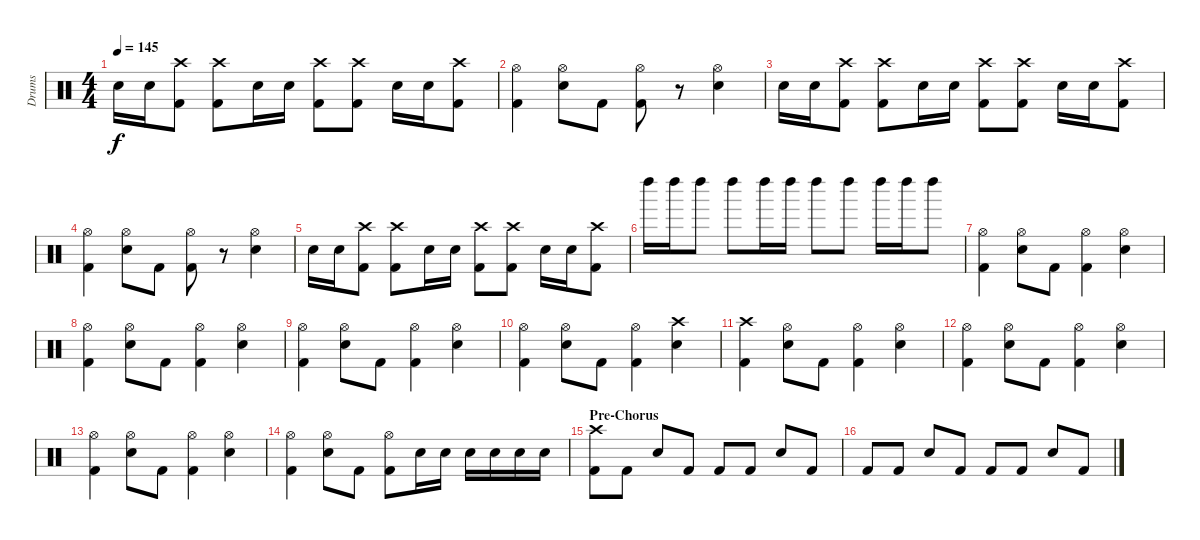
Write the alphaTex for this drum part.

\track ("Drums" "Drums") {instrument percussion}
\staff {score}
\articulation defaults
\ts (4 4)
\tempo 145
\clef neutral
\ks c "Snare (hit) 2".16{dy f} "Snare (hit) 2".16
("Crash high (hit)" "Kick (hit) 2").8 ("Crash high (hit)" "Kick (hit) 2").8 "Snare (hit) 2".16 "Snare (hit) 2".16 ("Crash high (hit)" "Kick (hit) 2").8 ("Crash high (hit)" "Kick (hit) 2").8 "Snare (hit) 2".16 "Snare (hit) 2".16 ("Crash high (hit)" "Kick (hit) 2").8 |
("Hi-Hat (open)" "Kick (hit) 2").4 ("Hi-Hat (open)" "Snare (hit) 2").8 "Kick (hit) 2".8 ("Hi-Hat (open)" "Kick (hit) 2").8 r.8 ("Hi-Hat (open)" "Snare (hit) 2").4 |
"Snare (hit) 2".16 "Snare (hit) 2".16 ("Crash high (hit)" "Kick (hit) 2").8 ("Crash high (hit)" "Kick (hit) 2").8 "Snare (hit) 2".16 "Snare (hit) 2".16 ("Crash high (hit)" "Kick (hit) 2").8 ("Crash high (hit)" "Kick (hit) 2").8 "Snare (hit) 2".16 "Snare (hit) 2".16 ("Crash high (hit)" "Kick (hit) 2").8 |
("Hi-Hat (open)" "Kick (hit) 2").4 ("Hi-Hat (open)" "Snare (hit) 2").8 "Kick (hit) 2".8 ("Hi-Hat (open)" "Kick (hit) 2").8 r.8 ("Hi-Hat (open)" "Snare (hit) 2").4 |
"Snare (hit) 2".16 "Snare (hit) 2".16 ("Crash high (hit)" "Kick (hit) 2").8 ("Crash high (hit)" "Kick (hit) 2").8 "Snare (hit) 2".16 "Snare (hit) 2".16 ("Crash high (hit)" "Kick (hit) 2").8 ("Crash high (hit)" "Kick (hit) 2").8 "Snare (hit) 2".16 "Snare (hit) 2".16 ("Crash high (hit)" "Kick (hit) 2").8 |
"Left Maraca (hit)".16 "Left Maraca (hit)".16 "Left Maraca (hit)".8 "Left Maraca (hit)".8 "Left Maraca (hit)".16 "Left Maraca (hit)".16 "Left Maraca (hit)".8 "Left Maraca (hit)".8 "Left Maraca (hit)".16 "Left Maraca (hit)".16 "Left Maraca (hit)".8 |
("Hi-Hat (open)" "Kick (hit) 2").4 ("Hi-Hat (open)" "Snare (hit) 2").8 "Kick (hit) 2".8 ("Hi-Hat (open)" "Kick (hit) 2").4 ("Hi-Hat (open)" "Snare (hit) 2").4 |
("Hi-Hat (open)" "Kick (hit) 2").4 ("Hi-Hat (open)" "Snare (hit) 2").8 "Kick (hit) 2".8 ("Hi-Hat (open)" "Kick (hit) 2").4 ("Hi-Hat (open)" "Snare (hit) 2").4 |
("Hi-Hat (open)" "Kick (hit) 2").4 ("Hi-Hat (open)" "Snare (hit) 2").8 "Kick (hit) 2".8 ("Hi-Hat (open)" "Kick (hit) 2").4 ("Hi-Hat (open)" "Snare (hit) 2").4 |
("Hi-Hat (open)" "Kick (hit) 2").4 ("Hi-Hat (open)" "Snare (hit) 2").8 "Kick (hit) 2".8 ("Hi-Hat (open)" "Kick (hit) 2").4 ("Crash high (hit)" "Snare (hit) 2").4 |
("Crash high (hit)" "Kick (hit) 2").4 ("Hi-Hat (open)" "Snare (hit) 2").8 "Kick (hit) 2".8 ("Hi-Hat (open)" "Kick (hit) 2").4 ("Hi-Hat (open)" "Snare (hit) 2").4 |
("Hi-Hat (open)" "Kick (hit) 2").4 ("Hi-Hat (open)" "Snare (hit) 2").8 "Kick (hit) 2".8 ("Hi-Hat (open)" "Kick (hit) 2").4 ("Hi-Hat (open)" "Snare (hit) 2").4 |
("Hi-Hat (open)" "Kick (hit) 2").4 ("Hi-Hat (open)" "Snare (hit) 2").8 "Kick (hit) 2".8 ("Hi-Hat (open)" "Kick (hit) 2").4 ("Hi-Hat (open)" "Snare (hit) 2").4 |
("Hi-Hat (open)" "Kick (hit) 2").4 ("Hi-Hat (open)" "Snare (hit) 2").8 "Kick (hit) 2".8 ("Hi-Hat (open)" "Kick (hit) 2").8 "Snare (hit) 2".16 "Snare (hit) 2".16 "Snare (hit) 2".16 "Snare (hit) 2".16 "Snare (hit) 2".16 "Snare (hit) 2".16 |
\section ("" "Pre-Chorus")
("Crash high (hit)" "Kick (hit) 2").8 "Kick (hit) 2".8 "Snare (hit) 2".8 "Kick (hit) 2".8 "Kick (hit) 2".8 "Kick (hit) 2".8 "Snare (hit) 2".8 "Kick (hit) 2".8 |
"Kick (hit) 2".8 "Kick (hit) 2".8 "Snare (hit) 2".8 "Kick (hit) 2".8 "Kick (hit) 2".8 "Kick (hit) 2".8 "Snare (hit) 2".8 "Kick (hit) 2".8
